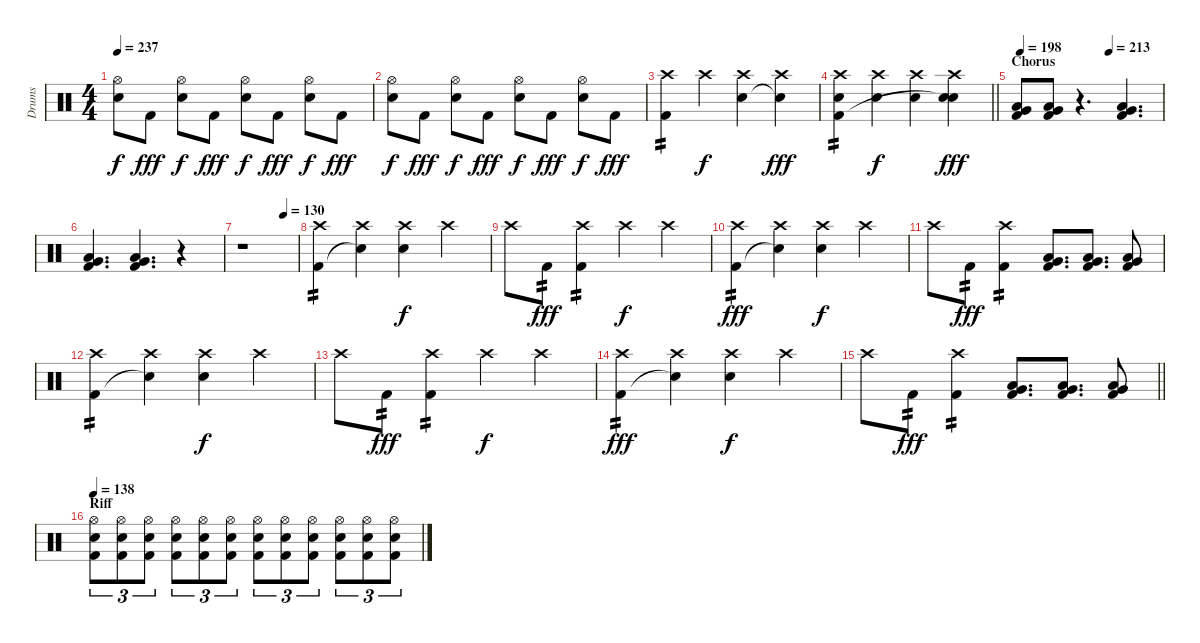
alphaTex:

\track ("Drums" "Drums") {instrument percussion}
\staff {score}
\articulation defaults
\ts (4 4)
\tempo 237
\clef neutral
\ks c
("Hi-Hat (open)" "Electric Snare (hit)").8{dy f} "Kick (hit) 2".8{dy fff} ("Hi-Hat (open)" "Electric Snare (hit)").8{dy f} "Kick (hit) 2".8{dy fff} ("Hi-Hat (open)" "Electric Snare (hit)").8{dy f} "Kick (hit) 2".8{dy fff} ("Hi-Hat (open)" "Electric Snare (hit)").8{dy f} "Kick (hit) 2".8{dy fff} |
("Hi-Hat (open)" "Electric Snare (hit)").8{dy f} "Kick (hit) 2".8{dy fff} ("Hi-Hat (open)" "Electric Snare (hit)").8{dy f} "Kick (hit) 2".8{dy fff} ("Hi-Hat (open)" "Electric Snare (hit)").8{dy f} "Kick (hit) 2".8{dy fff} ("Hi-Hat (open)" "Electric Snare (hit)").8{dy f} "Kick (hit) 2".8{dy fff} |
("Crash high (hit)" "Kick (hit) 2").4{tp 2} "Crash high (hit)".4{dy f} ("Crash high (hit)" "Electric Snare (hit)").4 ("Crash high (hit)" "Snare (hit)"{t}).4{dy fff} |
\barLineRight lightlight
("Crash high (hit)" "Electric Snare (hit)" "Kick (hit) 2").4{tp 2} ("Crash high (hit)" "Electric Snare (hit)").4{dy f} ("Crash high (hit)" "Electric Snare (hit)").4 ("Crash high (hit)" "Electric Snare (hit)" "Snare (hit)"{t}).4{dy fff} |
\section ("" "Chorus")
\tempo (213 0.625)
\tempo 198
("Low Tom (hit)" "Very Low Tom (hit)" "Kick (hit) 2").8 ("Low Tom (hit)" "Very Low Tom (hit)" "Kick (hit) 2").8 r.4{d} ("Low Tom (hit)" "Very Low Tom (hit)" "Kick (hit) 2").4{d} |
("Low Tom (hit)" "Very Low Tom (hit)" "Kick (hit) 2").4{d} ("Low Tom (hit)" "Very Low Tom (hit)" "Kick (hit) 2").4{d} r.4 |
\tempo (130 0.75)
r.1 |
("Crash high (hit)" "Kick (hit) 2").4{tp 2} ("Crash high (hit)" "Snare (hit)"{t}).4 ("Crash high (hit)" "Electric Snare (hit)").4{dy f} "Crash high (hit)".4 |
"Crash high (hit)".8 "Kick (hit) 2".8{tp 2 dy fff} ("Crash high (hit)" "Kick (hit) 2").4{tp 2} "Crash high (hit)".4{dy f} "Crash high (hit)".4 |
("Crash high (hit)" "Kick (hit) 2").4{tp 2 dy fff} ("Crash high (hit)" "Snare (hit)"{t}).4 ("Crash high (hit)" "Electric Snare (hit)").4{dy f} "Crash high (hit)".4 |
"Crash high (hit)".8 "Kick (hit) 2".8{tp 2 dy fff} ("Crash high (hit)" "Kick (hit) 2").4{tp 2} ("Low Tom (hit)" "Very Low Tom (hit)" "Kick (hit) 2").8{d} ("Low Tom (hit)" "Very Low Tom (hit)" "Kick (hit) 2").8{d} ("Low Tom (hit)" "Very Low Tom (hit)" "Kick (hit) 2").8 |
("Crash high (hit)" "Kick (hit) 2").4{tp 2} ("Crash high (hit)" "Snare (hit)"{t}).4 ("Crash high (hit)" "Electric Snare (hit)").4{dy f} "Crash high (hit)".4 |
"Crash high (hit)".8 "Kick (hit) 2".8{tp 2 dy fff} ("Crash high (hit)" "Kick (hit) 2").4{tp 2} "Crash high (hit)".4{dy f} "Crash high (hit)".4 |
("Crash high (hit)" "Kick (hit) 2").4{tp 2 dy fff} ("Crash high (hit)" "Snare (hit)"{t}).4 ("Crash high (hit)" "Electric Snare (hit)").4{dy f} "Crash high (hit)".4 |
\barLineRight lightlight "Crash high (hit)".8 "Kick (hit) 2".8{tp 2 dy fff}
("Crash high (hit)" "Kick (hit) 2").4{tp 2} ("Low Tom (hit)" "Very Low Tom (hit)" "Kick (hit) 2").8{d} ("Low Tom (hit)" "Very Low Tom (hit)" "Kick (hit) 2").8{d} ("Low Tom (hit)" "Very Low Tom (hit)" "Kick (hit) 2").8 |
\section ("" "Riff")
\tempo 138
("Hi-Hat (open)" "Electric Snare (hit)" "Kick (hit) 2").8{tu (3 2)} ("Hi-Hat (open)" "Electric Snare (hit)" "Kick (hit) 2").8{tu (3 2)} ("Hi-Hat (open)" "Electric Snare (hit)" "Kick (hit) 2").8{tu (3 2)} ("Hi-Hat (open)" "Electric Snare (hit)" "Kick (hit) 2").8{tu (3 2)} ("Hi-Hat (open)" "Electric Snare (hit)" "Kick (hit) 2").8{tu (3 2)} ("Hi-Hat (open)" "Electric Snare (hit)" "Kick (hit) 2").8{tu (3 2)} ("Hi-Hat (open)" "Electric Snare (hit)" "Kick (hit) 2").8{tu (3 2)} ("Hi-Hat (open)" "Electric Snare (hit)" "Kick (hit) 2").8{tu (3 2)} ("Hi-Hat (open)" "Electric Snare (hit)" "Kick (hit) 2").8{tu (3 2)} ("Hi-Hat (open)" "Electric Snare (hit)" "Kick (hit) 2").8{tu (3 2)} ("Hi-Hat (open)" "Electric Snare (hit)" "Kick (hit) 2").8{tu (3 2)} ("Hi-Hat (open)" "Electric Snare (hit)" "Kick (hit) 2").8{tu (3 2)}
